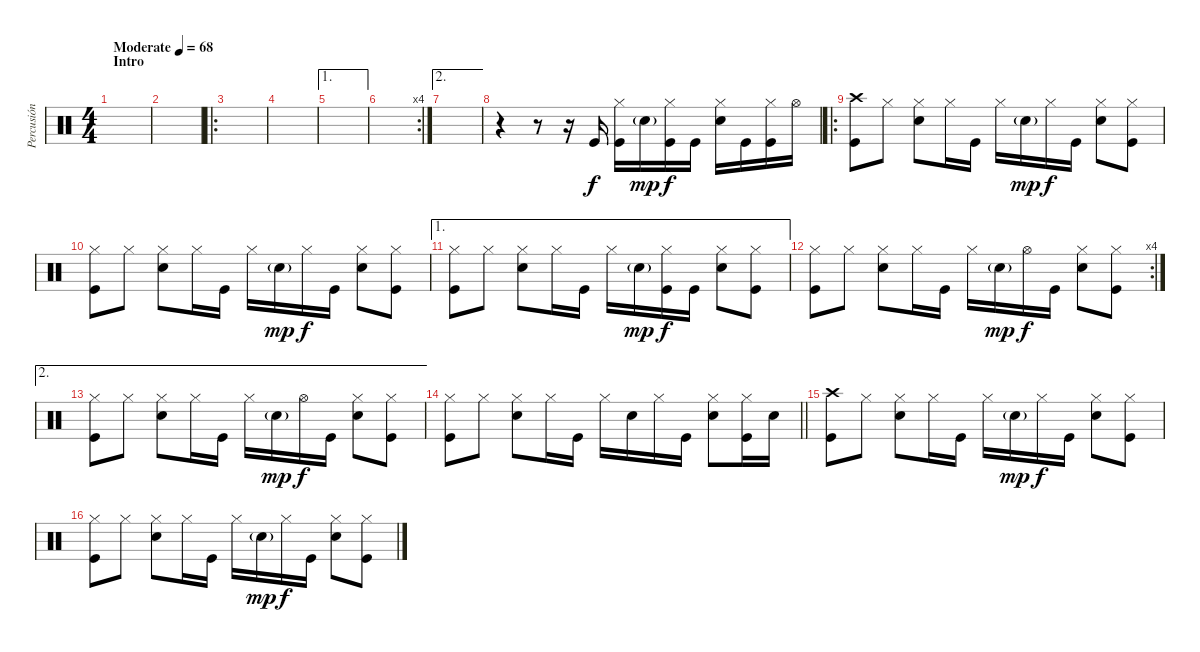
\track ("Percusión" "Percusión") {instrument percussion}
\staff {score}
\articulation defaults
\ts (4 4)
\section ("" "Intro")
\tempo (68 "Moderate")
\clef neutral
\ks c
|
|
\ro
|
|
\ae 1
|
\rc 4
|
\ae 2
|
r.4 r.8 r.16 "Kick (hit)".16 ("Hi-Hat (closed)" "Kick (hit)").16 "Snare (hit) 2"{g}.16{dy mp} ("Hi-Hat (closed)" "Kick (hit)").16{dy f} "Kick (hit)".16 ("Hi-Hat (closed)" "Snare (hit) 2").16 "Kick (hit)".16 ("Hi-Hat (closed)" "Kick (hit)").16 "Hi-Hat (open)".16 |
\ro
("Crash high (hit)" "Kick (hit)").8 "Hi-Hat (closed)".8 ("Hi-Hat (closed)" "Snare (hit) 2").8 "Hi-Hat (closed)".16 "Kick (hit)".16 "Hi-Hat (closed)".16 "Snare (hit) 2"{g}.16{dy mp} "Hi-Hat (closed)".16{dy f} "Kick (hit)".16 ("Hi-Hat (closed)" "Snare (hit) 2").8 ("Hi-Hat (closed)" "Kick (hit)").8 |
("Hi-Hat (closed)" "Kick (hit)").8 "Hi-Hat (closed)".8 ("Hi-Hat (closed)" "Snare (hit) 2").8 "Hi-Hat (closed)".16 "Kick (hit)".16 "Hi-Hat (closed)".16 "Snare (hit) 2"{g}.16{dy mp} "Hi-Hat (closed)".16{dy f} "Kick (hit)".16 ("Hi-Hat (closed)" "Snare (hit) 2").8 ("Hi-Hat (closed)" "Kick (hit)").8 |
\ae 1
("Hi-Hat (closed)" "Kick (hit)").8 "Hi-Hat (closed)".8 ("Hi-Hat (closed)" "Snare (hit) 2").8 "Hi-Hat (closed)".16 "Kick (hit)".16 "Hi-Hat (closed)".16 "Snare (hit) 2"{g}.16{dy mp} ("Hi-Hat (closed)" "Kick (hit)").16{dy f} "Kick (hit)".16 ("Hi-Hat (closed)" "Snare (hit) 2").8 ("Hi-Hat (closed)" "Kick (hit)").8 |
\rc 4
("Hi-Hat (closed)" "Kick (hit)").8 "Hi-Hat (closed)".8 ("Hi-Hat (closed)" "Snare (hit) 2").8 "Hi-Hat (closed)".16 "Kick (hit)".16 "Hi-Hat (closed)".16 "Snare (hit) 2"{g}.16{dy mp} "Hi-Hat (open)".16{dy f} "Kick (hit)".16 ("Hi-Hat (closed)" "Snare (hit) 2").8 ("Hi-Hat (closed)" "Kick (hit)").8 |
\ae 2
("Hi-Hat (closed)" "Kick (hit)").8 "Hi-Hat (closed)".8 ("Hi-Hat (closed)" "Snare (hit) 2").8 "Hi-Hat (closed)".16 "Kick (hit)".16 "Hi-Hat (closed)".16 "Snare (hit) 2"{g}.16{dy mp} "Hi-Hat (open)".16{dy f} "Kick (hit)".16 ("Hi-Hat (closed)" "Snare (hit) 2").8 ("Hi-Hat (closed)" "Kick (hit)").8 |
\barLineRight lightlight
("Hi-Hat (closed)" "Kick (hit)").8 "Hi-Hat (closed)".8 ("Hi-Hat (closed)" "Snare (hit) 2").8 "Hi-Hat (closed)".16 "Kick (hit)".16 "Hi-Hat (closed)".16 "Snare (hit) 2".16 "Hi-Hat (closed)".16 "Kick (hit)".16 ("Hi-Hat (closed)" "Snare (hit) 2").8 ("Hi-Hat (closed)" "Kick (hit)").16 "Snare (hit) 2".16 |
("Crash high (hit)" "Kick (hit)").8 "Hi-Hat (closed)".8 ("Hi-Hat (closed)" "Snare (hit) 2").8 "Hi-Hat (closed)".16 "Kick (hit)".16 "Hi-Hat (closed)".16 "Snare (hit) 2"{g}.16{dy mp} "Hi-Hat (closed)".16{dy f} "Kick (hit)".16 ("Hi-Hat (closed)" "Snare (hit) 2").8 ("Hi-Hat (closed)" "Kick (hit)").8 |
("Hi-Hat (closed)" "Kick (hit)").8 "Hi-Hat (closed)".8 ("Hi-Hat (closed)" "Snare (hit) 2").8 "Hi-Hat (closed)".16 "Kick (hit)".16 "Hi-Hat (closed)".16 "Snare (hit) 2"{g}.16{dy mp} "Hi-Hat (closed)".16{dy f} "Kick (hit)".16 ("Hi-Hat (closed)" "Snare (hit) 2").8 ("Hi-Hat (closed)" "Kick (hit)").8
